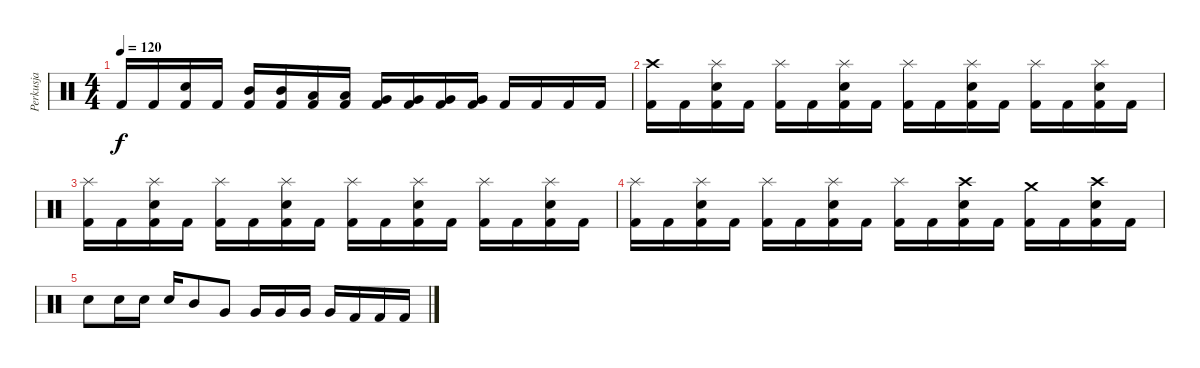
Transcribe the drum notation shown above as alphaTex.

\track ("Perkusja" "Perkusja") {instrument percussion}
\staff {score}
\articulation defaults
\ts (4 4)
\tempo 120
\clef neutral
\ks c "Kick (hit) 2".16{dy f} "Kick (hit) 2".16
("Snare (hit) 2" "Kick (hit) 2").16 "Kick (hit) 2".16 ("Mid Tom (hit)" "Kick (hit) 2").16 ("Mid Tom (hit)" "Kick (hit) 2").16 ("Low Tom (hit)" "Kick (hit) 2").16 ("Low Tom (hit)" "Kick (hit) 2").16 ("Very Low Tom (hit)" "Kick (hit) 2").16 ("Very Low Tom (hit)" "Kick (hit) 2").16 ("Very Low Tom (hit)" "Kick (hit) 2").16 ("Very Low Tom (hit)" "Kick (hit) 2").16 "Kick (hit) 2".16 "Kick (hit) 2".16 "Kick (hit) 2".16 "Kick (hit) 2".16 |
("Crash high (hit)" "Kick (hit) 2").16 "Kick (hit) 2".16 ("Splash (hit)" "Snare (hit) 2" "Kick (hit) 2").16 "Kick (hit) 2".16 ("Splash (hit)" "Kick (hit) 2").16 "Kick (hit) 2".16 ("Splash (hit)" "Snare (hit) 2" "Kick (hit) 2").16 "Kick (hit) 2".16 ("Splash (hit)" "Kick (hit) 2").16 "Kick (hit) 2".16 ("Splash (hit)" "Snare (hit) 2" "Kick (hit) 2").16 "Kick (hit) 2".16 ("Splash (hit)" "Kick (hit) 2").16 "Kick (hit) 2".16 ("Splash (hit)" "Snare (hit) 2" "Kick (hit) 2").16 "Kick (hit) 2".16 |
("Splash (hit)" "Kick (hit) 2").16 "Kick (hit) 2".16 ("Splash (hit)" "Snare (hit) 2" "Kick (hit) 2").16 "Kick (hit) 2".16 ("Splash (hit)" "Kick (hit) 2").16 "Kick (hit) 2".16 ("Splash (hit)" "Snare (hit) 2" "Kick (hit) 2").16 "Kick (hit) 2".16 ("Splash (hit)" "Kick (hit) 2").16 "Kick (hit) 2".16 ("Splash (hit)" "Snare (hit) 2" "Kick (hit) 2").16 "Kick (hit) 2".16 ("Splash (hit)" "Kick (hit) 2").16 "Kick (hit) 2".16 ("Splash (hit)" "Snare (hit) 2" "Kick (hit) 2").16 "Kick (hit) 2".16 |
("Splash (hit)" "Kick (hit) 2").16 "Kick (hit) 2".16 ("Splash (hit)" "Snare (hit) 2" "Kick (hit) 2").16 "Kick (hit) 2".16 ("Splash (hit)" "Kick (hit) 2").16 "Kick (hit) 2".16 ("Splash (hit)" "Snare (hit) 2" "Kick (hit) 2").16 "Kick (hit) 2".16 ("Splash (hit)" "Kick (hit) 2").16 "Kick (hit) 2".16 ("Crash high (hit)" "Snare (hit) 2" "Kick (hit) 2").16 "Kick (hit) 2".16 ("Crash medium (hit)" "Kick (hit) 2").16 "Kick (hit) 2".16 ("Crash high (hit)" "Snare (hit) 2" "Kick (hit) 2").16 "Kick (hit) 2".16 |
"Snare (hit) 2".8 "Snare (hit) 2".16 "Snare (hit) 2".16 "Snare (hit) 2".16 "Mid Tom (hit)".8 "Very Low Tom (hit)".8 "Very Low Tom (hit)".16 "Very Low Tom (hit)".16 "Very Low Tom (hit)".16 "Very Low Tom (hit)".16 "Kick (hit) 2".16 "Kick (hit) 2".16 "Kick (hit) 2".16
